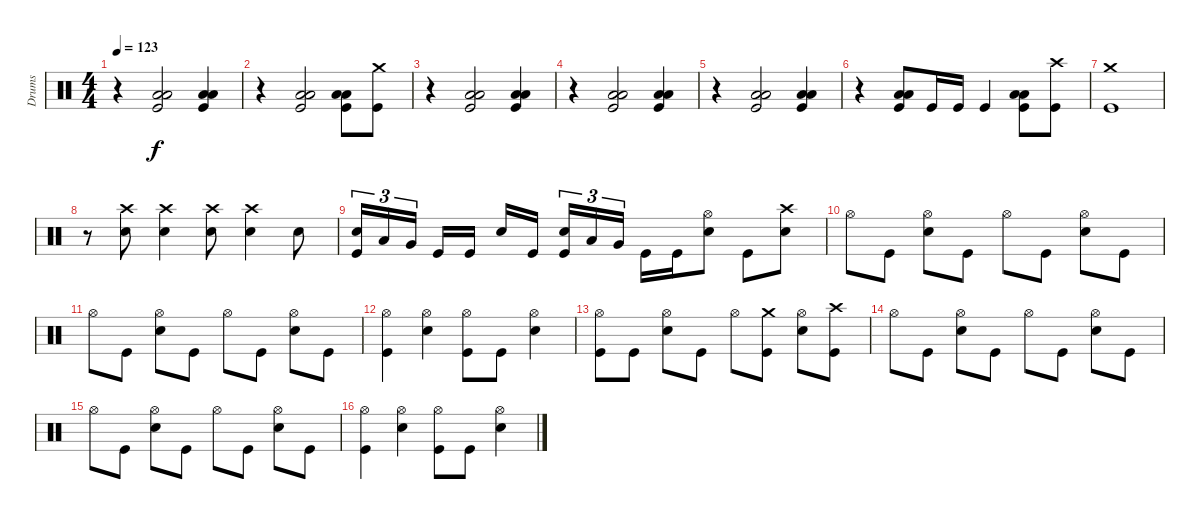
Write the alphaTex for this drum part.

\track ("Drums" "Drums") {instrument percussion}
\staff {score}
\articulation defaults
\ts (4 4)
\tempo 123
\clef neutral
\ks c
r.4{dy f} ("Low Tom (hit)" "Low Floor Tom (hit)" "Kick (hit)").2 ("Low Tom (hit)" "Low Floor Tom (hit)" "Kick (hit)").4 |
r.4 ("Low Tom (hit)" "Low Floor Tom (hit)" "Kick (hit)").2 ("Low Tom (hit)" "Low Floor Tom (hit)" "Kick (hit)").8 ("Crash medium (hit)" "Kick (hit)").8 |
r.4 ("Low Tom (hit)" "Low Floor Tom (hit)" "Kick (hit)").2 ("Low Tom (hit)" "Low Floor Tom (hit)" "Kick (hit)").4 |
r.4 ("Low Tom (hit)" "Low Floor Tom (hit)" "Kick (hit)").2 ("Low Tom (hit)" "Low Floor Tom (hit)" "Kick (hit)").4 |
r.4 ("Low Tom (hit)" "Low Floor Tom (hit)" "Kick (hit)").2 ("Low Tom (hit)" "Low Floor Tom (hit)" "Kick (hit)").4 |
r.4 ("Low Tom (hit)" "Low Floor Tom (hit)" "Kick (hit)").8 "Kick (hit)".16 "Kick (hit)".16 "Kick (hit)".4 ("Low Tom (hit)" "Low Floor Tom (hit)" "Kick (hit)").8 ("Crash high (hit)" "Kick (hit)").8 |
("Crash medium (hit)" "Kick (hit)").1 |
r.8 ("Crash high (hit)" "Snare (hit) 2").8 ("Crash high (hit)" "Snare (hit) 2").4 ("Crash high (hit)" "Snare (hit) 2").8 ("Crash high (hit)" "Snare (hit) 2").4 "Snare (hit) 2".8 |
("Snare (hit) 2" "Kick (hit)").16{tu (3 2)} "Low Tom (hit)".16{tu (3 2)} "Very Low Tom (hit)".16{tu (3 2) beam splitsecondary} "Kick (hit)".16 "Kick (hit)".16 "Snare (hit) 2".16 "Kick (hit)".16{beam splitsecondary} ("Snare (hit) 2" "Kick (hit)").16{tu (3 2)} "Low Tom (hit)".16{tu (3 2)} "Very Low Tom (hit)".16{tu (3 2)} "Kick (hit)".16 "Kick (hit)".16 ("Hi-Hat (open)" "Snare (hit) 2").8 "Kick (hit)".8 ("Crash high (hit)" "Snare (hit) 2").8 |
"Hi-Hat (open)".8 "Kick (hit)".8 ("Hi-Hat (open)" "Snare (hit) 2").8 "Kick (hit)".8 "Hi-Hat (open)".8 "Kick (hit)".8 ("Hi-Hat (open)" "Snare (hit) 2").8 "Kick (hit)".8 |
"Hi-Hat (open)".8 "Kick (hit)".8 ("Hi-Hat (open)" "Snare (hit) 2").8 "Kick (hit)".8 "Hi-Hat (open)".8 "Kick (hit)".8 ("Hi-Hat (open)" "Snare (hit) 2").8 "Kick (hit)".8 |
("Hi-Hat (open)" "Kick (hit)").4 ("Hi-Hat (open)" "Snare (hit) 2").4 ("Hi-Hat (open)" "Kick (hit)").8 "Kick (hit)".8 ("Hi-Hat (open)" "Snare (hit) 2").4 |
("Hi-Hat (open)" "Kick (hit)").8 "Kick (hit)".8 ("Hi-Hat (open)" "Snare (hit) 2").8 "Kick (hit)".8 "Hi-Hat (open)".8 ("Crash medium (hit)" "Kick (hit)").8 ("Hi-Hat (open)" "Snare (hit) 2").8 ("Crash high (hit)" "Kick (hit)").8 |
"Hi-Hat (open)".8 "Kick (hit)".8 ("Hi-Hat (open)" "Snare (hit) 2").8 "Kick (hit)".8 "Hi-Hat (open)".8 "Kick (hit)".8 ("Hi-Hat (open)" "Snare (hit) 2").8 "Kick (hit)".8 |
"Hi-Hat (open)".8 "Kick (hit)".8 ("Hi-Hat (open)" "Snare (hit) 2").8 "Kick (hit)".8 "Hi-Hat (open)".8 "Kick (hit)".8 ("Hi-Hat (open)" "Snare (hit) 2").8 "Kick (hit)".8 |
("Hi-Hat (open)" "Kick (hit)").4 ("Hi-Hat (open)" "Snare (hit) 2").4 ("Hi-Hat (open)" "Kick (hit)").8 "Kick (hit)".8 ("Hi-Hat (open)" "Snare (hit) 2").4
